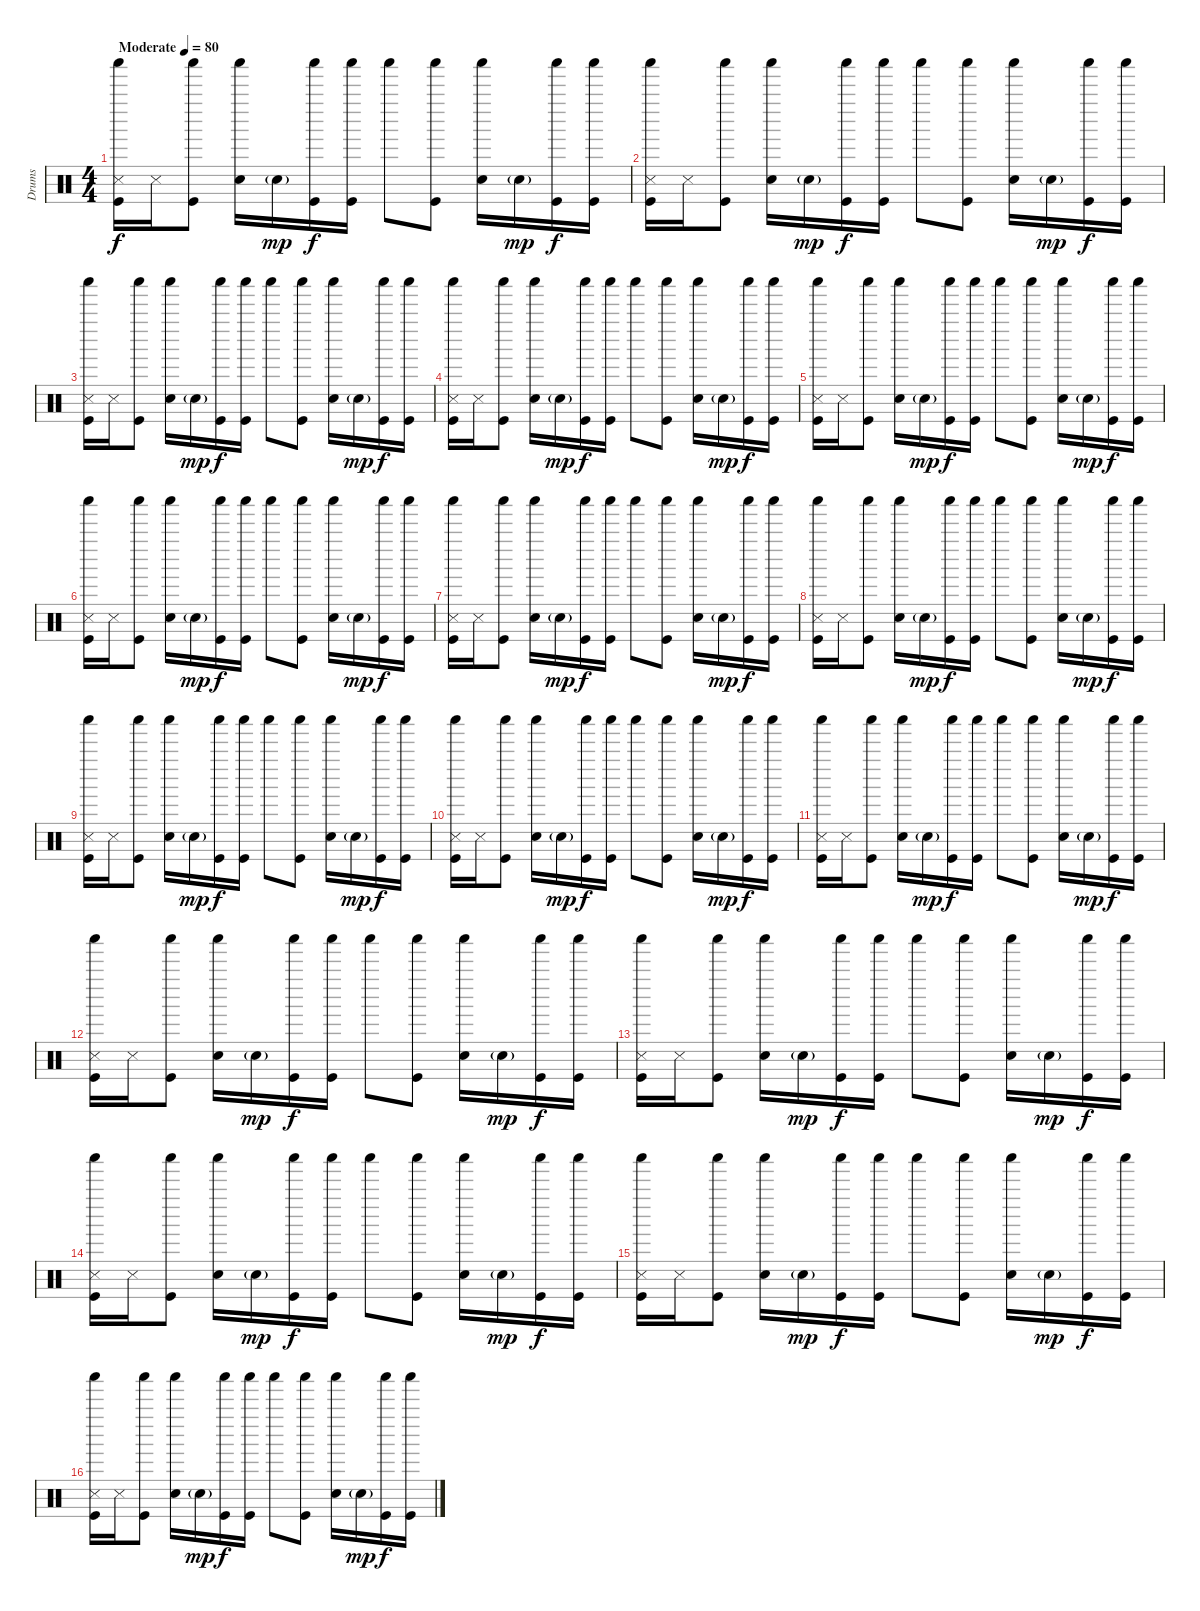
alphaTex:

\track ("Drums" "Drums") {instrument percussion}
\staff {score}
\articulation defaults
\ts (4 4)
\tempo (80 "Moderate")
\clef neutral
\ks c
("Shaker (hit)" "Snare (side stick) 3" "Kick (hit)").16{dy f} "Snare (side stick) 3".16 ("Shaker (hit)" "Kick (hit)").8 ("Shaker (hit)" "Electric Snare (hit)").16 "Electric Snare (hit)"{g}.16{dy mp} ("Shaker (hit)" "Kick (hit)").16{dy f} ("Shaker (hit)" "Kick (hit)").16 "Shaker (hit)".8 ("Shaker (hit)" "Kick (hit)").8 ("Shaker (hit)" "Electric Snare (hit)").16 "Electric Snare (hit)"{g}.16{dy mp} ("Shaker (hit)" "Kick (hit)").16{dy f} ("Shaker (hit)" "Kick (hit)").16 |
("Shaker (hit)" "Snare (side stick) 3" "Kick (hit)").16 "Snare (side stick) 3".16 ("Shaker (hit)" "Kick (hit)").8 ("Shaker (hit)" "Electric Snare (hit)").16 "Electric Snare (hit)"{g}.16{dy mp} ("Shaker (hit)" "Kick (hit)").16{dy f} ("Shaker (hit)" "Kick (hit)").16 "Shaker (hit)".8 ("Shaker (hit)" "Kick (hit)").8 ("Shaker (hit)" "Electric Snare (hit)").16 "Electric Snare (hit)"{g}.16{dy mp} ("Shaker (hit)" "Kick (hit)").16{dy f} ("Shaker (hit)" "Kick (hit)").16 |
("Shaker (hit)" "Snare (side stick) 3" "Kick (hit)").16 "Snare (side stick) 3".16 ("Shaker (hit)" "Kick (hit)").8 ("Shaker (hit)" "Electric Snare (hit)").16 "Electric Snare (hit)"{g}.16{dy mp} ("Shaker (hit)" "Kick (hit)").16{dy f} ("Shaker (hit)" "Kick (hit)").16 "Shaker (hit)".8 ("Shaker (hit)" "Kick (hit)").8 ("Shaker (hit)" "Electric Snare (hit)").16 "Electric Snare (hit)"{g}.16{dy mp} ("Shaker (hit)" "Kick (hit)").16{dy f} ("Shaker (hit)" "Kick (hit)").16 |
("Shaker (hit)" "Snare (side stick) 3" "Kick (hit)").16 "Snare (side stick) 3".16 ("Shaker (hit)" "Kick (hit)").8 ("Shaker (hit)" "Electric Snare (hit)").16 "Electric Snare (hit)"{g}.16{dy mp} ("Shaker (hit)" "Kick (hit)").16{dy f} ("Shaker (hit)" "Kick (hit)").16 "Shaker (hit)".8 ("Shaker (hit)" "Kick (hit)").8 ("Shaker (hit)" "Electric Snare (hit)").16 "Electric Snare (hit)"{g}.16{dy mp} ("Shaker (hit)" "Kick (hit)").16{dy f} ("Shaker (hit)" "Kick (hit)").16 |
("Shaker (hit)" "Snare (side stick) 3" "Kick (hit)").16 "Snare (side stick) 3".16 ("Shaker (hit)" "Kick (hit)").8 ("Shaker (hit)" "Electric Snare (hit)").16 "Electric Snare (hit)"{g}.16{dy mp} ("Shaker (hit)" "Kick (hit)").16{dy f} ("Shaker (hit)" "Kick (hit)").16 "Shaker (hit)".8 ("Shaker (hit)" "Kick (hit)").8 ("Shaker (hit)" "Electric Snare (hit)").16 "Electric Snare (hit)"{g}.16{dy mp} ("Shaker (hit)" "Kick (hit)").16{dy f} ("Shaker (hit)" "Kick (hit)").16 |
("Shaker (hit)" "Snare (side stick) 3" "Kick (hit)").16 "Snare (side stick) 3".16 ("Shaker (hit)" "Kick (hit)").8 ("Shaker (hit)" "Electric Snare (hit)").16 "Electric Snare (hit)"{g}.16{dy mp} ("Shaker (hit)" "Kick (hit)").16{dy f} ("Shaker (hit)" "Kick (hit)").16 "Shaker (hit)".8 ("Shaker (hit)" "Kick (hit)").8 ("Shaker (hit)" "Electric Snare (hit)").16 "Electric Snare (hit)"{g}.16{dy mp} ("Shaker (hit)" "Kick (hit)").16{dy f} ("Shaker (hit)" "Kick (hit)").16 |
("Shaker (hit)" "Snare (side stick) 3" "Kick (hit)").16 "Snare (side stick) 3".16 ("Shaker (hit)" "Kick (hit)").8 ("Shaker (hit)" "Electric Snare (hit)").16 "Electric Snare (hit)"{g}.16{dy mp} ("Shaker (hit)" "Kick (hit)").16{dy f} ("Shaker (hit)" "Kick (hit)").16 "Shaker (hit)".8 ("Shaker (hit)" "Kick (hit)").8 ("Shaker (hit)" "Electric Snare (hit)").16 "Electric Snare (hit)"{g}.16{dy mp} ("Shaker (hit)" "Kick (hit)").16{dy f} ("Shaker (hit)" "Kick (hit)").16 |
("Shaker (hit)" "Snare (side stick) 3" "Kick (hit)").16 "Snare (side stick) 3".16 ("Shaker (hit)" "Kick (hit)").8 ("Shaker (hit)" "Electric Snare (hit)").16 "Electric Snare (hit)"{g}.16{dy mp} ("Shaker (hit)" "Kick (hit)").16{dy f} ("Shaker (hit)" "Kick (hit)").16 "Shaker (hit)".8 ("Shaker (hit)" "Kick (hit)").8 ("Shaker (hit)" "Electric Snare (hit)").16 "Electric Snare (hit)"{g}.16{dy mp} ("Shaker (hit)" "Kick (hit)").16{dy f} ("Shaker (hit)" "Kick (hit)").16 |
("Shaker (hit)" "Snare (side stick) 3" "Kick (hit)").16 "Snare (side stick) 3".16 ("Shaker (hit)" "Kick (hit)").8 ("Shaker (hit)" "Electric Snare (hit)").16 "Electric Snare (hit)"{g}.16{dy mp} ("Shaker (hit)" "Kick (hit)").16{dy f} ("Shaker (hit)" "Kick (hit)").16 "Shaker (hit)".8 ("Shaker (hit)" "Kick (hit)").8 ("Shaker (hit)" "Electric Snare (hit)").16 "Electric Snare (hit)"{g}.16{dy mp} ("Shaker (hit)" "Kick (hit)").16{dy f} ("Shaker (hit)" "Kick (hit)").16 |
("Shaker (hit)" "Snare (side stick) 3" "Kick (hit)").16 "Snare (side stick) 3".16 ("Shaker (hit)" "Kick (hit)").8 ("Shaker (hit)" "Electric Snare (hit)").16 "Electric Snare (hit)"{g}.16{dy mp} ("Shaker (hit)" "Kick (hit)").16{dy f} ("Shaker (hit)" "Kick (hit)").16 "Shaker (hit)".8 ("Shaker (hit)" "Kick (hit)").8 ("Shaker (hit)" "Electric Snare (hit)").16 "Electric Snare (hit)"{g}.16{dy mp} ("Shaker (hit)" "Kick (hit)").16{dy f} ("Shaker (hit)" "Kick (hit)").16 |
("Shaker (hit)" "Snare (side stick) 3" "Kick (hit)").16 "Snare (side stick) 3".16 ("Shaker (hit)" "Kick (hit)").8 ("Shaker (hit)" "Electric Snare (hit)").16 "Electric Snare (hit)"{g}.16{dy mp} ("Shaker (hit)" "Kick (hit)").16{dy f} ("Shaker (hit)" "Kick (hit)").16 "Shaker (hit)".8 ("Shaker (hit)" "Kick (hit)").8 ("Shaker (hit)" "Electric Snare (hit)").16 "Electric Snare (hit)"{g}.16{dy mp} ("Shaker (hit)" "Kick (hit)").16{dy f} ("Shaker (hit)" "Kick (hit)").16 |
("Shaker (hit)" "Snare (side stick) 3" "Kick (hit)").16 "Snare (side stick) 3".16 ("Shaker (hit)" "Kick (hit)").8 ("Shaker (hit)" "Electric Snare (hit)").16 "Electric Snare (hit)"{g}.16{dy mp} ("Shaker (hit)" "Kick (hit)").16{dy f} ("Shaker (hit)" "Kick (hit)").16 "Shaker (hit)".8 ("Shaker (hit)" "Kick (hit)").8 ("Shaker (hit)" "Electric Snare (hit)").16 "Electric Snare (hit)"{g}.16{dy mp} ("Shaker (hit)" "Kick (hit)").16{dy f} ("Shaker (hit)" "Kick (hit)").16 |
("Shaker (hit)" "Snare (side stick) 3" "Kick (hit)").16 "Snare (side stick) 3".16 ("Shaker (hit)" "Kick (hit)").8 ("Shaker (hit)" "Electric Snare (hit)").16 "Electric Snare (hit)"{g}.16{dy mp} ("Shaker (hit)" "Kick (hit)").16{dy f} ("Shaker (hit)" "Kick (hit)").16 "Shaker (hit)".8 ("Shaker (hit)" "Kick (hit)").8 ("Shaker (hit)" "Electric Snare (hit)").16 "Electric Snare (hit)"{g}.16{dy mp} ("Shaker (hit)" "Kick (hit)").16{dy f} ("Shaker (hit)" "Kick (hit)").16 |
("Shaker (hit)" "Snare (side stick) 3" "Kick (hit)").16 "Snare (side stick) 3".16 ("Shaker (hit)" "Kick (hit)").8 ("Shaker (hit)" "Electric Snare (hit)").16 "Electric Snare (hit)"{g}.16{dy mp} ("Shaker (hit)" "Kick (hit)").16{dy f} ("Shaker (hit)" "Kick (hit)").16 "Shaker (hit)".8 ("Shaker (hit)" "Kick (hit)").8 ("Shaker (hit)" "Electric Snare (hit)").16 "Electric Snare (hit)"{g}.16{dy mp} ("Shaker (hit)" "Kick (hit)").16{dy f} ("Shaker (hit)" "Kick (hit)").16 |
("Shaker (hit)" "Snare (side stick) 3" "Kick (hit)").16 "Snare (side stick) 3".16 ("Shaker (hit)" "Kick (hit)").8 ("Shaker (hit)" "Electric Snare (hit)").16 "Electric Snare (hit)"{g}.16{dy mp} ("Shaker (hit)" "Kick (hit)").16{dy f} ("Shaker (hit)" "Kick (hit)").16 "Shaker (hit)".8 ("Shaker (hit)" "Kick (hit)").8 ("Shaker (hit)" "Electric Snare (hit)").16 "Electric Snare (hit)"{g}.16{dy mp} ("Shaker (hit)" "Kick (hit)").16{dy f} ("Shaker (hit)" "Kick (hit)").16 |
("Shaker (hit)" "Snare (side stick) 3" "Kick (hit)").16 "Snare (side stick) 3".16 ("Shaker (hit)" "Kick (hit)").8 ("Shaker (hit)" "Electric Snare (hit)").16 "Electric Snare (hit)"{g}.16{dy mp} ("Shaker (hit)" "Kick (hit)").16{dy f} ("Shaker (hit)" "Kick (hit)").16 "Shaker (hit)".8 ("Shaker (hit)" "Kick (hit)").8 ("Shaker (hit)" "Electric Snare (hit)").16 "Electric Snare (hit)"{g}.16{dy mp} ("Shaker (hit)" "Kick (hit)").16{dy f} ("Shaker (hit)" "Kick (hit)").16
